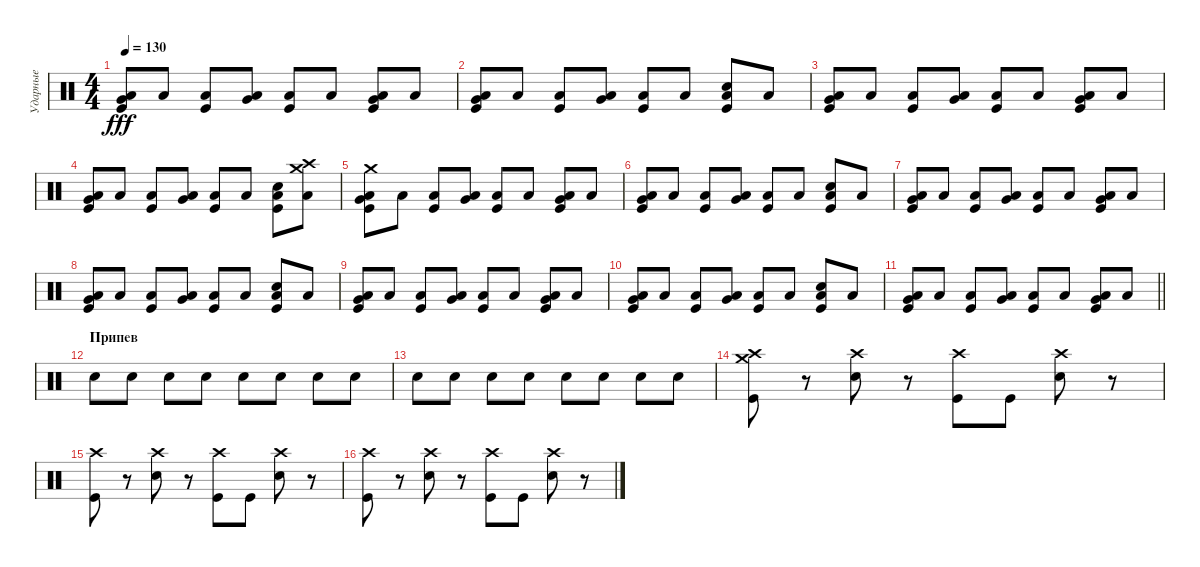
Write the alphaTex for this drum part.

\track ("Ударные" "Ударные") {instrument percussion}
\staff {score}
\articulation defaults
\ts (4 4)
\tempo 130
\clef neutral
\ks c
("Kick (hit)" "Low Tom (hit)" "Very Low Tom (hit)").8{dy fff} "Low Tom (hit)".8 ("Kick (hit)" "Low Tom (hit)").8 ("Low Tom (hit)" "Very Low Tom (hit)").8 ("Kick (hit)" "Low Tom (hit)").8 "Low Tom (hit)".8 ("Kick (hit)" "Low Tom (hit)" "Very Low Tom (hit)").8 "Low Tom (hit)".8 |
("Kick (hit)" "Low Tom (hit)" "Very Low Tom (hit)").8 "Low Tom (hit)".8 ("Kick (hit)" "Low Tom (hit)").8 ("Low Tom (hit)" "Very Low Tom (hit)").8 ("Kick (hit)" "Low Tom (hit)").8 "Low Tom (hit)".8 ("Kick (hit)" "Low Tom (hit)" "Electric Snare (hit)").8 "Low Tom (hit)".8 |
("Kick (hit)" "Low Tom (hit)" "Very Low Tom (hit)").8 "Low Tom (hit)".8 ("Kick (hit)" "Low Tom (hit)").8 ("Low Tom (hit)" "Very Low Tom (hit)").8 ("Kick (hit)" "Low Tom (hit)").8 "Low Tom (hit)".8 ("Kick (hit)" "Low Tom (hit)" "Very Low Tom (hit)").8 "Low Tom (hit)".8 |
("Kick (hit)" "Low Tom (hit)" "Very Low Tom (hit)").8 "Low Tom (hit)".8 ("Kick (hit)" "Low Tom (hit)").8 ("Low Tom (hit)" "Very Low Tom (hit)").8 ("Kick (hit)" "Low Tom (hit)").8 "Low Tom (hit)".8 ("Kick (hit)" "Low Tom (hit)" "Electric Snare (hit)").8 ("Crash high (hit)" "Crash medium (hit)" "Low Tom (hit)").8 |
("Kick (hit)" "Crash medium (hit)" "Low Tom (hit)" "Very Low Tom (hit)").8 "Low Tom (hit)".8 ("Kick (hit)" "Low Tom (hit)").8 ("Low Tom (hit)" "Very Low Tom (hit)").8 ("Kick (hit)" "Low Tom (hit)").8 "Low Tom (hit)".8 ("Kick (hit)" "Low Tom (hit)" "Very Low Tom (hit)").8 "Low Tom (hit)".8 |
("Kick (hit)" "Low Tom (hit)" "Very Low Tom (hit)").8 "Low Tom (hit)".8 ("Kick (hit)" "Low Tom (hit)").8 ("Low Tom (hit)" "Very Low Tom (hit)").8 ("Kick (hit)" "Low Tom (hit)").8 "Low Tom (hit)".8 ("Kick (hit)" "Low Tom (hit)" "Electric Snare (hit)").8 "Low Tom (hit)".8 |
("Kick (hit)" "Low Tom (hit)" "Very Low Tom (hit)").8 "Low Tom (hit)".8 ("Kick (hit)" "Low Tom (hit)").8 ("Low Tom (hit)" "Very Low Tom (hit)").8 ("Kick (hit)" "Low Tom (hit)").8 "Low Tom (hit)".8 ("Kick (hit)" "Low Tom (hit)" "Very Low Tom (hit)").8 "Low Tom (hit)".8 |
("Kick (hit)" "Low Tom (hit)" "Very Low Tom (hit)").8 "Low Tom (hit)".8 ("Kick (hit)" "Low Tom (hit)").8 ("Low Tom (hit)" "Very Low Tom (hit)").8 ("Kick (hit)" "Low Tom (hit)").8 "Low Tom (hit)".8 ("Kick (hit)" "Low Tom (hit)" "Electric Snare (hit)").8 "Low Tom (hit)".8 |
("Kick (hit)" "Low Tom (hit)" "Very Low Tom (hit)").8 "Low Tom (hit)".8 ("Kick (hit)" "Low Tom (hit)").8 ("Low Tom (hit)" "Very Low Tom (hit)").8 ("Kick (hit)" "Low Tom (hit)").8 "Low Tom (hit)".8 ("Kick (hit)" "Low Tom (hit)" "Very Low Tom (hit)").8 "Low Tom (hit)".8 |
("Kick (hit)" "Low Tom (hit)" "Very Low Tom (hit)").8 "Low Tom (hit)".8 ("Kick (hit)" "Low Tom (hit)").8 ("Low Tom (hit)" "Very Low Tom (hit)").8 ("Kick (hit)" "Low Tom (hit)").8 "Low Tom (hit)".8 ("Kick (hit)" "Low Tom (hit)" "Electric Snare (hit)").8 "Low Tom (hit)".8 |
\barLineRight lightlight
("Kick (hit)" "Low Tom (hit)" "Very Low Tom (hit)").8 "Low Tom (hit)".8 ("Kick (hit)" "Low Tom (hit)").8 ("Low Tom (hit)" "Very Low Tom (hit)").8 ("Kick (hit)" "Low Tom (hit)").8 "Low Tom (hit)".8 ("Kick (hit)" "Low Tom (hit)" "Very Low Tom (hit)").8 "Low Tom (hit)".8 |
\section ("" "Припев")
"Electric Snare (hit)".8 "Electric Snare (hit)".8 "Electric Snare (hit)".8 "Electric Snare (hit)".8 "Electric Snare (hit)".8 "Electric Snare (hit)".8 "Electric Snare (hit)".8 "Electric Snare (hit)".8 |
"Electric Snare (hit)".8 "Electric Snare (hit)".8 "Electric Snare (hit)".8 "Electric Snare (hit)".8 "Electric Snare (hit)".8 "Electric Snare (hit)".8 "Electric Snare (hit)".8 "Electric Snare (hit)".8 |
("Crash medium (hit)" "Kick (hit)" "Crash high (hit)").8 r.8 ("Crash high (hit)" "Electric Snare (hit)").8 r.8 ("Crash high (hit)" "Kick (hit)").8 "Kick (hit)".8 ("Crash high (hit)" "Electric Snare (hit)").8 r.8 |
("Crash high (hit)" "Kick (hit)").8 r.8 ("Crash high (hit)" "Electric Snare (hit)").8 r.8 ("Crash high (hit)" "Kick (hit)").8 "Kick (hit)".8 ("Crash high (hit)" "Electric Snare (hit)").8 r.8 |
("Crash high (hit)" "Kick (hit)").8 r.8 ("Crash high (hit)" "Electric Snare (hit)").8 r.8 ("Crash high (hit)" "Kick (hit)").8 "Kick (hit)".8 ("Crash high (hit)" "Electric Snare (hit)").8 r.8
